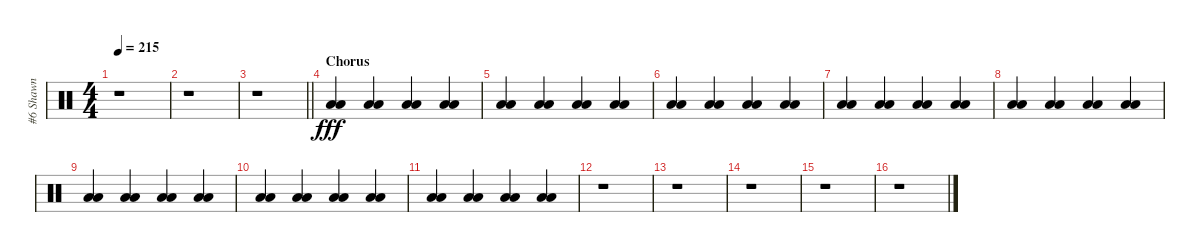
\track ("#6 Shawn" "#6 Shawn") {instrument percussion}
\staff {score}
\articulation defaults
\ts (4 4)
\tempo 215
\clef neutral
\ks c
r.1{dy f} |
r.1 |
\barLineRight lightlight
r.1 |
\section ("" "Chorus")
("Low Floor Tom (hit)" "Low Floor Tom (hit)").4{dy fff} ("Low Floor Tom (hit)" "Low Floor Tom (hit)").4 ("Low Floor Tom (hit)" "Low Floor Tom (hit)").4 ("Low Floor Tom (hit)" "Low Floor Tom (hit)").4 |
("Low Floor Tom (hit)" "Low Floor Tom (hit)").4 ("Low Floor Tom (hit)" "Low Floor Tom (hit)").4 ("Low Floor Tom (hit)" "Low Floor Tom (hit)").4 ("Low Floor Tom (hit)" "Low Floor Tom (hit)").4 |
("Low Floor Tom (hit)" "Low Floor Tom (hit)").4 ("Low Floor Tom (hit)" "Low Floor Tom (hit)").4 ("Low Floor Tom (hit)" "Low Floor Tom (hit)").4 ("Low Floor Tom (hit)" "Low Floor Tom (hit)").4 |
("Low Floor Tom (hit)" "Low Floor Tom (hit)").4 ("Low Floor Tom (hit)" "Low Floor Tom (hit)").4 ("Low Floor Tom (hit)" "Low Floor Tom (hit)").4 ("Low Floor Tom (hit)" "Low Floor Tom (hit)").4 |
("Low Floor Tom (hit)" "Low Floor Tom (hit)").4 ("Low Floor Tom (hit)" "Low Floor Tom (hit)").4 ("Low Floor Tom (hit)" "Low Floor Tom (hit)").4 ("Low Floor Tom (hit)" "Low Floor Tom (hit)").4 |
("Low Floor Tom (hit)" "Low Floor Tom (hit)").4 ("Low Floor Tom (hit)" "Low Floor Tom (hit)").4 ("Low Floor Tom (hit)" "Low Floor Tom (hit)").4 ("Low Floor Tom (hit)" "Low Floor Tom (hit)").4 |
("Low Floor Tom (hit)" "Low Floor Tom (hit)").4 ("Low Floor Tom (hit)" "Low Floor Tom (hit)").4 ("Low Floor Tom (hit)" "Low Floor Tom (hit)").4 ("Low Floor Tom (hit)" "Low Floor Tom (hit)").4 |
("Low Floor Tom (hit)" "Low Floor Tom (hit)").4 ("Low Floor Tom (hit)" "Low Floor Tom (hit)").4 ("Low Floor Tom (hit)" "Low Floor Tom (hit)").4 ("Low Floor Tom (hit)" "Low Floor Tom (hit)").4 |
r.1 |
r.1 |
r.1 |
r.1 |
r.1
